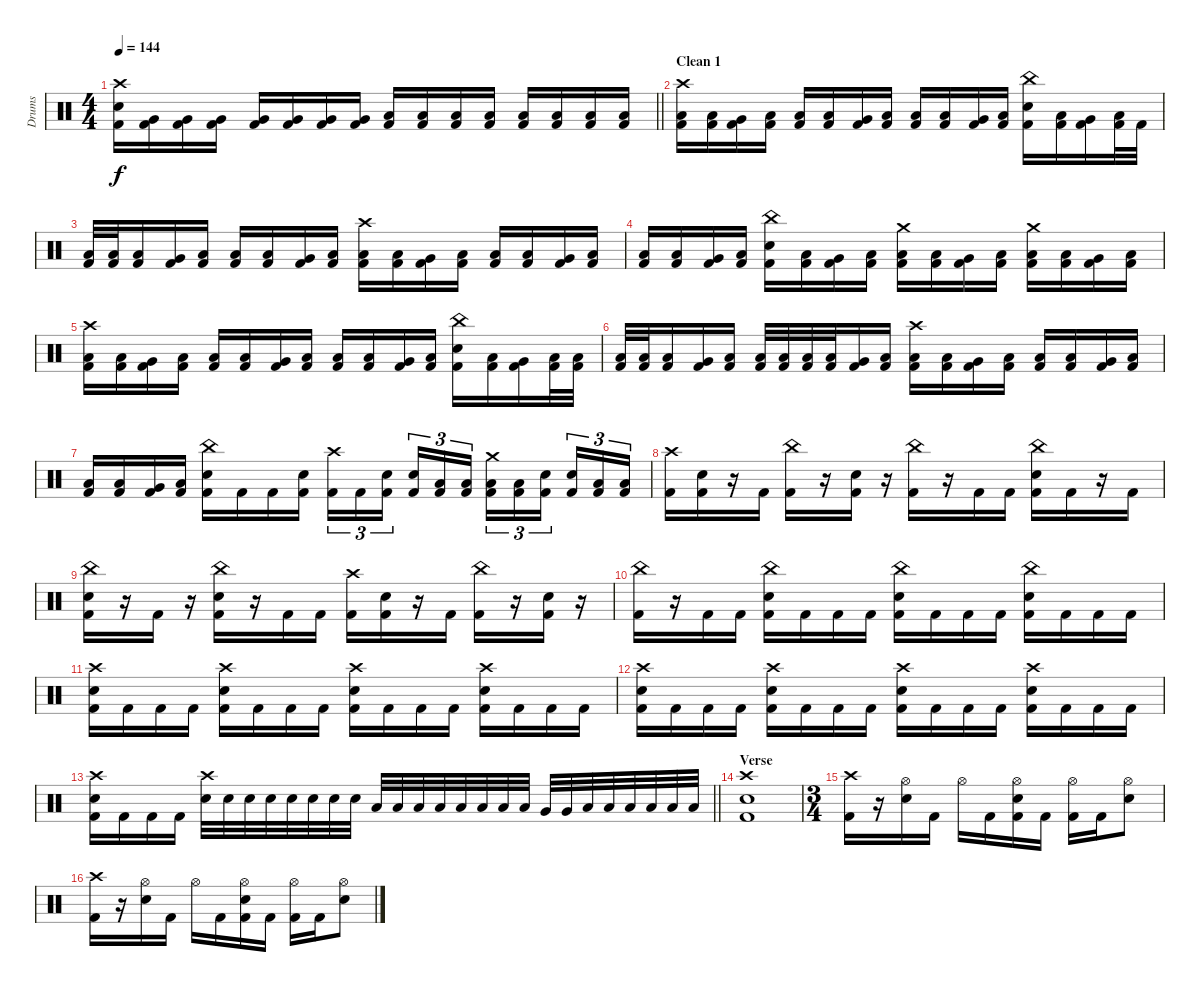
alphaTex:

\track ("Drums" "Drums") {instrument percussion}
\staff {score}
\articulation defaults
\ts (4 4)
\tempo 144
\clef neutral
\barLineRight lightlight
\ks c
("Crash high (hit)" "Snare (hit) 2" "Kick (hit) 2").16{dy f} ("Very Low Tom (hit)" "Kick (hit) 2").16 ("Very Low Tom (hit)" "Kick (hit) 2").16 ("Very Low Tom (hit)" "Kick (hit) 2").16 ("Very Low Tom (hit)" "Kick (hit) 2").16 ("Very Low Tom (hit)" "Kick (hit) 2").16 ("Very Low Tom (hit)" "Kick (hit) 2").16 ("Very Low Tom (hit)" "Kick (hit) 2").16 ("Low Floor Tom (hit)" "Kick (hit) 2").16 ("Low Floor Tom (hit)" "Kick (hit) 2").16 ("Low Floor Tom (hit)" "Kick (hit) 2").16 ("Low Floor Tom (hit)" "Kick (hit) 2").16 ("Low Floor Tom (hit)" "Kick (hit) 2").16 ("Low Floor Tom (hit)" "Kick (hit) 2").16 ("Low Floor Tom (hit)" "Kick (hit) 2").16 ("Low Floor Tom (hit)" "Kick (hit) 2").16 |
\section ("" "Clean 1")
("Crash high (hit)" "Low Floor Tom (hit)" "Kick (hit) 2").16 ("Low Tom (hit)" "Kick (hit) 2").16 ("Very Low Tom (hit)" "Kick (hit) 2").16 ("Low Floor Tom (hit)" "Kick (hit) 2").16 ("Low Floor Tom (hit)" "Kick (hit) 2").16 ("Low Tom (hit)" "Kick (hit) 2").16 ("Very Low Tom (hit)" "Kick (hit) 2").16 ("Low Floor Tom (hit)" "Kick (hit) 2").16 ("Low Floor Tom (hit)" "Kick (hit) 2").16 ("Low Tom (hit)" "Kick (hit) 2").16 ("Very Low Tom (hit)" "Kick (hit) 2").16 ("Low Floor Tom (hit)" "Kick (hit) 2").16 ("China (hit)" "Snare (hit) 2" "Kick (hit) 2").16 ("Low Tom (hit)" "Kick (hit) 2").16 ("Very Low Tom (hit)" "Kick (hit) 2").16 ("Low Floor Tom (hit)" "Kick (hit) 2").32 "Kick (hit) 2".32 |
("Low Floor Tom (hit)" "Kick (hit) 2").32 ("Low Floor Tom (hit)" "Kick (hit) 2").32 ("Low Tom (hit)" "Kick (hit) 2").16 ("Very Low Tom (hit)" "Kick (hit) 2").16 ("Low Floor Tom (hit)" "Kick (hit) 2").16 ("Low Floor Tom (hit)" "Kick (hit) 2").16 ("Low Tom (hit)" "Kick (hit) 2").16 ("Very Low Tom (hit)" "Kick (hit) 2").16 ("Low Floor Tom (hit)" "Kick (hit) 2").16 ("Crash high (hit)" "Low Floor Tom (hit)" "Kick (hit) 2").16 ("Low Tom (hit)" "Kick (hit) 2").16 ("Very Low Tom (hit)" "Kick (hit) 2").16 ("Low Floor Tom (hit)" "Kick (hit) 2").16 ("Low Floor Tom (hit)" "Kick (hit) 2").16 ("Low Tom (hit)" "Kick (hit) 2").16 ("Very Low Tom (hit)" "Kick (hit) 2").16 ("Low Floor Tom (hit)" "Kick (hit) 2").16 |
("Low Floor Tom (hit)" "Kick (hit) 2").16 ("Low Tom (hit)" "Kick (hit) 2").16 ("Very Low Tom (hit)" "Kick (hit) 2").16 ("Low Floor Tom (hit)" "Kick (hit) 2").16 ("China (hit)" "Snare (hit) 2" "Kick (hit) 2").16 ("Low Tom (hit)" "Kick (hit) 2").16 ("Very Low Tom (hit)" "Kick (hit) 2").16 ("Low Floor Tom (hit)" "Kick (hit) 2").16 ("Crash medium (hit)" "Low Floor Tom (hit)" "Kick (hit) 2").16 ("Low Tom (hit)" "Kick (hit) 2").16 ("Very Low Tom (hit)" "Kick (hit) 2").16 ("Low Floor Tom (hit)" "Kick (hit) 2").16 ("Crash medium (hit)" "Low Floor Tom (hit)" "Kick (hit) 2").16 ("Low Tom (hit)" "Kick (hit) 2").16 ("Very Low Tom (hit)" "Kick (hit) 2").16 ("Low Floor Tom (hit)" "Kick (hit) 2").16 |
("Crash high (hit)" "Low Floor Tom (hit)" "Kick (hit) 2").16 ("Low Tom (hit)" "Kick (hit) 2").16 ("Very Low Tom (hit)" "Kick (hit) 2").16 ("Low Floor Tom (hit)" "Kick (hit) 2").16 ("Low Floor Tom (hit)" "Kick (hit) 2").16 ("Low Tom (hit)" "Kick (hit) 2").16 ("Very Low Tom (hit)" "Kick (hit) 2").16 ("Low Floor Tom (hit)" "Kick (hit) 2").16 ("Low Floor Tom (hit)" "Kick (hit) 2").16 ("Low Tom (hit)" "Kick (hit) 2").16 ("Very Low Tom (hit)" "Kick (hit) 2").16 ("Low Floor Tom (hit)" "Kick (hit) 2").16 ("China (hit)" "Snare (hit) 2" "Kick (hit) 2").16 ("Low Tom (hit)" "Kick (hit) 2").16 ("Very Low Tom (hit)" "Kick (hit) 2").16 ("Low Floor Tom (hit)" "Kick (hit) 2").32 ("Low Floor Tom (hit)" "Kick (hit) 2").32 |
("Low Floor Tom (hit)" "Kick (hit) 2").32 ("Low Floor Tom (hit)" "Kick (hit) 2").32 ("Low Tom (hit)" "Kick (hit) 2").16 ("Very Low Tom (hit)" "Kick (hit) 2").16 ("Low Floor Tom (hit)" "Kick (hit) 2").16 ("Low Floor Tom (hit)" "Kick (hit) 2").32 ("Low Floor Tom (hit)" "Kick (hit) 2").32 ("Low Tom (hit)" "Kick (hit) 2").32 ("Low Tom (hit)" "Kick (hit) 2").32 ("Very Low Tom (hit)" "Kick (hit) 2").16 ("Low Floor Tom (hit)" "Kick (hit) 2").16 ("Crash high (hit)" "Low Floor Tom (hit)" "Kick (hit) 2").16 ("Low Tom (hit)" "Kick (hit) 2").16 ("Very Low Tom (hit)" "Kick (hit) 2").16 ("Low Floor Tom (hit)" "Kick (hit) 2").16 ("Low Floor Tom (hit)" "Kick (hit) 2").16 ("Low Tom (hit)" "Kick (hit) 2").16 ("Very Low Tom (hit)" "Kick (hit) 2").16 ("Low Floor Tom (hit)" "Kick (hit) 2").16 |
("Low Floor Tom (hit)" "Kick (hit) 2").16 ("Low Tom (hit)" "Kick (hit) 2").16 ("Very Low Tom (hit)" "Kick (hit) 2").16 ("Low Floor Tom (hit)" "Kick (hit) 2").16 ("China (hit)" "Snare (hit) 2" "Kick (hit) 2").16 "Kick (hit) 2".16 "Kick (hit) 2".16 ("Snare (hit) 2" "Kick (hit) 2").16 ("Crash high (hit)" "Kick (hit) 2").16{tu (3 2)} "Kick (hit) 2".16{tu (3 2)} ("Snare (hit) 2" "Kick (hit) 2").16{tu (3 2) beam splitsecondary} ("Snare (hit) 2" "Kick (hit) 2").16{tu (3 2)} ("Low Tom (hit)" "Kick (hit) 2").16{tu (3 2)} ("Low Floor Tom (hit)" "Kick (hit) 2").16{tu (3 2)} ("Crash medium (hit)" "Low Floor Tom (hit)" "Kick (hit) 2").16{tu (3 2)} ("Low Floor Tom (hit)" "Kick (hit) 2").16{tu (3 2)} ("Snare (hit) 2" "Kick (hit) 2").16{tu (3 2) beam splitsecondary} ("Snare (hit) 2" "Kick (hit) 2").16{tu (3 2)} ("Low Floor Tom (hit)" "Kick (hit) 2").16{tu (3 2)} ("Low Floor Tom (hit)" "Kick (hit) 2").16{tu (3 2)} |
("Crash high (hit)" "Kick (hit) 2").16 ("Snare (hit) 2" "Kick (hit) 2").16 r.16 "Kick (hit) 2".16 ("China (hit)" "Kick (hit) 2").16 r.16 ("Snare (hit) 2" "Kick (hit) 2").16 r.16 ("China (hit)" "Kick (hit) 2").16 r.16 "Kick (hit) 2".16 "Kick (hit) 2".16 ("China (hit)" "Snare (hit) 2" "Kick (hit) 2").16 "Kick (hit) 2".16 r.16 "Kick (hit) 2".16 |
("China (hit)" "Snare (hit) 2" "Kick (hit) 2").16 r.16 "Kick (hit) 2".16 r.16 ("China (hit)" "Snare (hit) 2" "Kick (hit) 2").16 r.16 "Kick (hit) 2".16 "Kick (hit) 2".16 ("Crash high (hit)" "Kick (hit) 2").16 ("Snare (hit) 2" "Kick (hit) 2").16 r.16 "Kick (hit) 2".16 ("China (hit)" "Kick (hit) 2").16 r.16 ("Snare (hit) 2" "Kick (hit) 2").16 r.16 |
("China (hit)" "Kick (hit) 2").16 r.16 "Kick (hit) 2".16 "Kick (hit) 2".16 ("China (hit)" "Snare (hit) 2" "Kick (hit) 2").16 "Kick (hit) 2".16 "Kick (hit) 2".16 "Kick (hit) 2".16 ("China (hit)" "Snare (hit) 2" "Kick (hit) 2").16 "Kick (hit) 2".16 "Kick (hit) 2".16 "Kick (hit) 2".16 ("China (hit)" "Snare (hit) 2" "Kick (hit) 2").16 "Kick (hit) 2".16 "Kick (hit) 2".16 "Kick (hit) 2".16 |
("Crash high (hit)" "Snare (hit) 2" "Kick (hit) 2").16 "Kick (hit) 2".16 "Kick (hit) 2".16 "Kick (hit) 2".16 ("Crash high (hit)" "Snare (hit) 2" "Kick (hit) 2").16 "Kick (hit) 2".16 "Kick (hit) 2".16 "Kick (hit) 2".16 ("Crash high (hit)" "Snare (hit) 2" "Kick (hit) 2").16 "Kick (hit) 2".16 "Kick (hit) 2".16 "Kick (hit) 2".16 ("Crash high (hit)" "Snare (hit) 2" "Kick (hit) 2").16 "Kick (hit) 2".16 "Kick (hit) 2".16 "Kick (hit) 2".16 |
("Crash high (hit)" "Snare (hit) 2" "Kick (hit) 2").16 "Kick (hit) 2".16 "Kick (hit) 2".16 "Kick (hit) 2".16 ("Crash high (hit)" "Snare (hit) 2" "Kick (hit) 2").16 "Kick (hit) 2".16 "Kick (hit) 2".16 "Kick (hit) 2".16 ("Crash high (hit)" "Snare (hit) 2" "Kick (hit) 2").16 "Kick (hit) 2".16 "Kick (hit) 2".16 "Kick (hit) 2".16 ("Crash high (hit)" "Snare (hit) 2" "Kick (hit) 2").16 "Kick (hit) 2".16 "Kick (hit) 2".16 "Kick (hit) 2".16 |
\barLineRight lightlight
("Crash high (hit)" "Snare (hit) 2" "Kick (hit) 2").16 "Kick (hit) 2".16 "Kick (hit) 2".16 "Kick (hit) 2".16 ("Crash high (hit)" "Snare (hit) 2").32 "Snare (hit) 2".32 "Snare (hit) 2".32 "Snare (hit) 2".32 "Snare (hit) 2".32 "Snare (hit) 2".32 "Snare (hit) 2".32 "Snare (hit) 2".32 "Low Tom (hit)".32 "Low Tom (hit)".32 "Low Tom (hit)".32 "Low Tom (hit)".32 "Low Tom (hit)".32 "Low Tom (hit)".32 "Low Tom (hit)".32 "Low Tom (hit)".32 "Very Low Tom (hit)".32 "Very Low Tom (hit)".32 "Low Floor Tom (hit)".32 "Low Floor Tom (hit)".32 "Low Floor Tom (hit)".32 "Low Floor Tom (hit)".32 "Low Floor Tom (hit)".32 "Low Floor Tom (hit)".32 |
\section ("" "Verse")
("Crash high (hit)" "Snare (hit) 2" "Kick (hit) 2").1 |
\ts (3 4)
("Crash high (hit)" "Kick (hit) 2").16 r.16 ("Hi-Hat (open)" "Snare (hit) 2").16 "Kick (hit) 2".16 "Hi-Hat (open)".16 "Kick (hit) 2".16 ("Hi-Hat (open)" "Snare (hit) 2" "Kick (hit) 2").16 "Kick (hit) 2".16 ("Hi-Hat (open)" "Kick (hit) 2").16 "Kick (hit) 2".16 ("Hi-Hat (open)" "Snare (hit) 2").8 |
("Crash high (hit)" "Kick (hit) 2").16 r.16 ("Hi-Hat (open)" "Snare (hit) 2").16 "Kick (hit) 2".16 "Hi-Hat (open)".16 "Kick (hit) 2".16 ("Hi-Hat (open)" "Snare (hit) 2" "Kick (hit) 2").16 "Kick (hit) 2".16 ("Hi-Hat (open)" "Kick (hit) 2").16 "Kick (hit) 2".16 ("Hi-Hat (open)" "Snare (hit) 2").8
